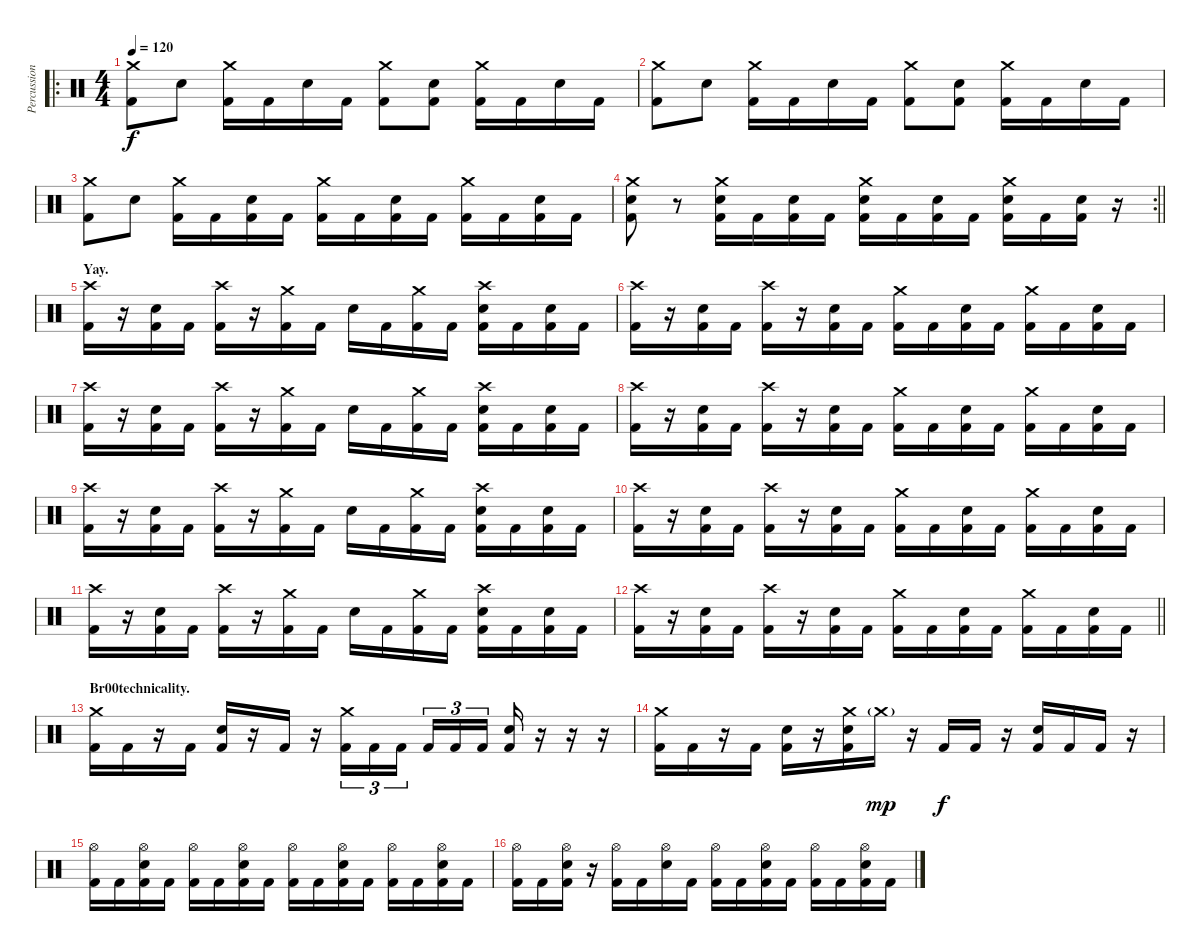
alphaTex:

\track ("Percussion" "Percussion") {instrument percussion}
\staff {score}
\articulation defaults
\ro
\ts (4 4)
\tempo 120
\clef neutral
\ks c
("Crash medium (hit)" "Kick (hit) 2").8{dy f} "Electric Snare (hit)".8 ("Crash medium (hit)" "Kick (hit) 2").16 "Kick (hit) 2".16 "Electric Snare (hit)".16 "Kick (hit) 2".16 ("Crash medium (hit)" "Kick (hit) 2").8 ("Electric Snare (hit)" "Kick (hit) 2").8 ("Crash medium (hit)" "Kick (hit) 2").16 "Kick (hit) 2".16 "Electric Snare (hit)".16 "Kick (hit) 2".16 |
("Crash medium (hit)" "Kick (hit) 2").8 "Electric Snare (hit)".8 ("Crash medium (hit)" "Kick (hit) 2").16 "Kick (hit) 2".16 "Electric Snare (hit)".16 "Kick (hit) 2".16 ("Crash medium (hit)" "Kick (hit) 2").8 ("Electric Snare (hit)" "Kick (hit) 2").8 ("Crash medium (hit)" "Kick (hit) 2").16 "Kick (hit) 2".16 "Electric Snare (hit)".16 "Kick (hit) 2".16 |
("Crash medium (hit)" "Kick (hit) 2").8 "Electric Snare (hit)".8 ("Crash medium (hit)" "Kick (hit) 2").16 "Kick (hit) 2".16 ("Electric Snare (hit)" "Kick (hit) 2").16 "Kick (hit) 2".16 ("Crash medium (hit)" "Kick (hit) 2").16 "Kick (hit) 2".16 ("Electric Snare (hit)" "Kick (hit) 2").16 "Kick (hit) 2".16 ("Crash medium (hit)" "Kick (hit) 2").16 "Kick (hit) 2".16 ("Electric Snare (hit)" "Kick (hit) 2").16 "Kick (hit) 2".16 |
\rc 2
\barLineRight lightlight
("Crash medium (hit)" "Electric Snare (hit)" "Kick (hit) 2").8 r.8 ("Crash medium (hit)" "Electric Snare (hit)" "Kick (hit) 2").16 "Kick (hit) 2".16 ("Electric Snare (hit)" "Kick (hit) 2").16 "Kick (hit) 2".16 ("Crash medium (hit)" "Electric Snare (hit)" "Kick (hit) 2").16 "Kick (hit) 2".16 ("Electric Snare (hit)" "Kick (hit) 2").16 "Kick (hit) 2".16 ("Crash medium (hit)" "Electric Snare (hit)" "Kick (hit) 2").16 "Kick (hit) 2".16 ("Electric Snare (hit)" "Kick (hit) 2").16 r.16 |
\section ("" "Yay.")
("Crash high (hit)" "Kick (hit) 2").16 r.16 ("Electric Snare (hit)" "Kick (hit) 2").16 "Kick (hit) 2".16 ("Crash high (hit)" "Kick (hit) 2").16 r.16 ("Crash medium (hit)" "Kick (hit) 2").16 "Kick (hit) 2".16 "Electric Snare (hit)".16 "Kick (hit) 2".16 ("Crash medium (hit)" "Kick (hit) 2").16 "Kick (hit) 2".16 ("Crash high (hit)" "Electric Snare (hit)" "Kick (hit) 2").16 "Kick (hit) 2".16 ("Electric Snare (hit)" "Kick (hit) 2").16 "Kick (hit) 2".16 |
("Crash high (hit)" "Kick (hit) 2").16 r.16 ("Electric Snare (hit)" "Kick (hit) 2").16 "Kick (hit) 2".16 ("Crash high (hit)" "Kick (hit) 2").16 r.16 ("Electric Snare (hit)" "Kick (hit) 2").16 "Kick (hit) 2".16 ("Crash medium (hit)" "Kick (hit) 2").16 "Kick (hit) 2".16 ("Electric Snare (hit)" "Kick (hit) 2").16 "Kick (hit) 2".16 ("Crash medium (hit)" "Kick (hit) 2").16 "Kick (hit) 2".16 ("Electric Snare (hit)" "Kick (hit) 2").16 "Kick (hit) 2".16 |
("Crash high (hit)" "Kick (hit) 2").16 r.16 ("Electric Snare (hit)" "Kick (hit) 2").16 "Kick (hit) 2".16 ("Crash high (hit)" "Kick (hit) 2").16 r.16 ("Crash medium (hit)" "Kick (hit) 2").16 "Kick (hit) 2".16 "Electric Snare (hit)".16 "Kick (hit) 2".16 ("Crash medium (hit)" "Kick (hit) 2").16 "Kick (hit) 2".16 ("Crash high (hit)" "Electric Snare (hit)" "Kick (hit) 2").16 "Kick (hit) 2".16 ("Electric Snare (hit)" "Kick (hit) 2").16 "Kick (hit) 2".16 |
("Crash high (hit)" "Kick (hit) 2").16 r.16 ("Electric Snare (hit)" "Kick (hit) 2").16 "Kick (hit) 2".16 ("Crash high (hit)" "Kick (hit) 2").16 r.16 ("Electric Snare (hit)" "Kick (hit) 2").16 "Kick (hit) 2".16 ("Crash medium (hit)" "Kick (hit) 2").16 "Kick (hit) 2".16 ("Electric Snare (hit)" "Kick (hit) 2").16 "Kick (hit) 2".16 ("Crash medium (hit)" "Kick (hit) 2").16 "Kick (hit) 2".16 ("Electric Snare (hit)" "Kick (hit) 2").16 "Kick (hit) 2".16 |
("Crash high (hit)" "Kick (hit) 2").16 r.16 ("Electric Snare (hit)" "Kick (hit) 2").16 "Kick (hit) 2".16 ("Crash high (hit)" "Kick (hit) 2").16 r.16 ("Crash medium (hit)" "Kick (hit) 2").16 "Kick (hit) 2".16 "Electric Snare (hit)".16 "Kick (hit) 2".16 ("Crash medium (hit)" "Kick (hit) 2").16 "Kick (hit) 2".16 ("Crash high (hit)" "Electric Snare (hit)" "Kick (hit) 2").16 "Kick (hit) 2".16 ("Electric Snare (hit)" "Kick (hit) 2").16 "Kick (hit) 2".16 |
("Crash high (hit)" "Kick (hit) 2").16 r.16 ("Electric Snare (hit)" "Kick (hit) 2").16 "Kick (hit) 2".16 ("Crash high (hit)" "Kick (hit) 2").16 r.16 ("Electric Snare (hit)" "Kick (hit) 2").16 "Kick (hit) 2".16 ("Crash medium (hit)" "Kick (hit) 2").16 "Kick (hit) 2".16 ("Electric Snare (hit)" "Kick (hit) 2").16 "Kick (hit) 2".16 ("Crash medium (hit)" "Kick (hit) 2").16 "Kick (hit) 2".16 ("Electric Snare (hit)" "Kick (hit) 2").16 "Kick (hit) 2".16 |
("Crash high (hit)" "Kick (hit) 2").16 r.16 ("Electric Snare (hit)" "Kick (hit) 2").16 "Kick (hit) 2".16 ("Crash high (hit)" "Kick (hit) 2").16 r.16 ("Crash medium (hit)" "Kick (hit) 2").16 "Kick (hit) 2".16 "Electric Snare (hit)".16 "Kick (hit) 2".16 ("Crash medium (hit)" "Kick (hit) 2").16 "Kick (hit) 2".16 ("Crash high (hit)" "Electric Snare (hit)" "Kick (hit) 2").16 "Kick (hit) 2".16 ("Electric Snare (hit)" "Kick (hit) 2").16 "Kick (hit) 2".16 |
\barLineRight lightlight
("Crash high (hit)" "Kick (hit) 2").16 r.16 ("Electric Snare (hit)" "Kick (hit) 2").16 "Kick (hit) 2".16 ("Crash high (hit)" "Kick (hit) 2").16 r.16 ("Electric Snare (hit)" "Kick (hit) 2").16 "Kick (hit) 2".16 ("Crash medium (hit)" "Kick (hit) 2").16 "Kick (hit) 2".16 ("Electric Snare (hit)" "Kick (hit) 2").16 "Kick (hit) 2".16 ("Crash medium (hit)" "Kick (hit) 2").16 "Kick (hit) 2".16 ("Electric Snare (hit)" "Kick (hit) 2").16 "Kick (hit) 2".16 |
\section ("" "Br00technicality.")
("Crash medium (hit)" "Kick (hit) 2").16 "Kick (hit) 2".16 r.16 "Kick (hit) 2".16 ("Electric Snare (hit)" "Kick (hit) 2").16 r.16 "Kick (hit) 2".16 r.16 ("Crash medium (hit)" "Kick (hit) 2").16{tu (3 2)} "Kick (hit) 2".16{tu (3 2)} "Kick (hit) 2".16{tu (3 2) beam splitsecondary} "Kick (hit) 2".16{tu (3 2)} "Kick (hit) 2".16{tu (3 2)} "Kick (hit) 2".16{tu (3 2)} ("Electric Snare (hit)" "Kick (hit) 2").16 r.16 r.16 r.16 |
("Crash medium (hit)" "Kick (hit) 2").16 "Kick (hit) 2".16 r.16 "Kick (hit) 2".16 ("Electric Snare (hit)" "Kick (hit) 2").16 r.16 ("Crash medium (hit)" "Electric Snare (hit)" "Kick (hit) 2").16 "Crash medium (hit)"{g}.16{dy mp} r.16 "Kick (hit) 2".16{dy f} "Kick (hit) 2".16 r.16 ("Electric Snare (hit)" "Kick (hit) 2").16 "Kick (hit) 2".16 "Kick (hit) 2".16 r.16 |
("Hi-Hat (open)" "Kick (hit) 2").16 "Kick (hit) 2".16 ("Hi-Hat (open)" "Electric Snare (hit)" "Kick (hit) 2").16 "Kick (hit) 2".16 ("Hi-Hat (open)" "Kick (hit) 2").16 "Kick (hit) 2".16 ("Hi-Hat (open)" "Electric Snare (hit)" "Kick (hit) 2").16 "Kick (hit) 2".16 ("Hi-Hat (open)" "Kick (hit) 2").16 "Kick (hit) 2".16 ("Hi-Hat (open)" "Electric Snare (hit)" "Kick (hit) 2").16 "Kick (hit) 2".16 ("Hi-Hat (open)" "Kick (hit) 2").16 "Kick (hit) 2".16 ("Hi-Hat (open)" "Electric Snare (hit)" "Kick (hit) 2").16 "Kick (hit) 2".16 |
("Hi-Hat (open)" "Kick (hit) 2").16 "Kick (hit) 2".16 ("Hi-Hat (open)" "Electric Snare (hit)" "Kick (hit) 2").16 r.16 ("Hi-Hat (open)" "Kick (hit) 2").16 "Kick (hit) 2".16 ("Hi-Hat (open)" "Electric Snare (hit)").16 "Kick (hit) 2".16 ("Hi-Hat (open)" "Kick (hit) 2").16 "Kick (hit) 2".16 ("Hi-Hat (open)" "Electric Snare (hit)" "Kick (hit) 2").16 "Kick (hit) 2".16 ("Hi-Hat (open)" "Kick (hit) 2").16 "Kick (hit) 2".16 ("Hi-Hat (open)" "Electric Snare (hit)" "Kick (hit) 2").16 "Kick (hit) 2".16
